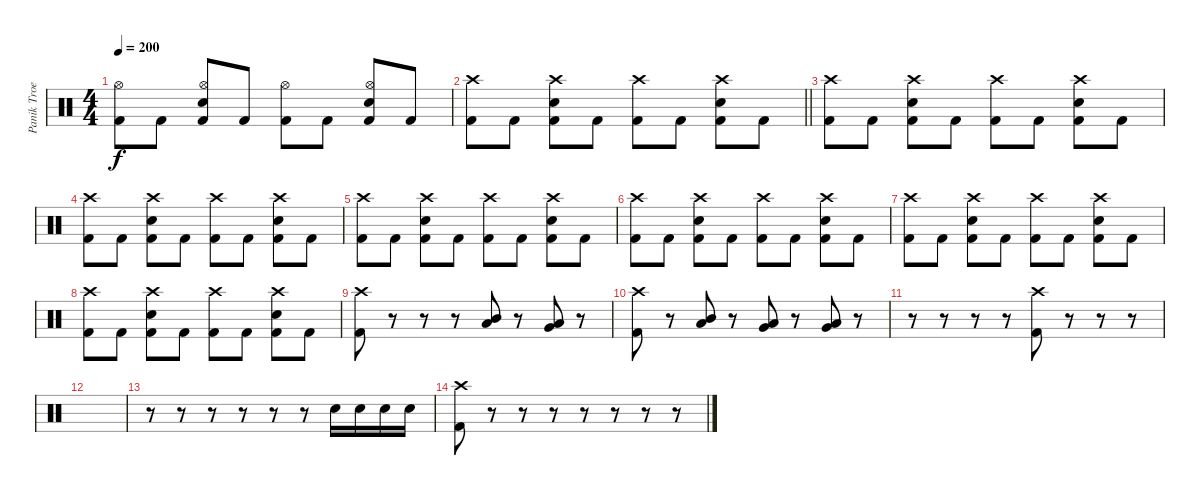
\track ("Panik Troels ( Dengang )" "Panik Troe") {instrument percussion}
\staff {score}
\articulation defaults
\ts (4 4)
\tempo 200
\clef neutral
\ks c
("Kick (hit) 2" "Hi-Hat (open)").8{dy f} "Kick (hit) 2".8 ("Kick (hit) 2" "Hi-Hat (open)" "Snare (hit) 2").8 "Kick (hit) 2".8 ("Kick (hit) 2" "Hi-Hat (open)").8 "Kick (hit) 2".8 ("Kick (hit) 2" "Hi-Hat (open)" "Snare (hit) 2").8 "Kick (hit) 2".8 |
\barLineRight lightlight
("Kick (hit) 2" "Crash high (hit)").8 "Kick (hit) 2".8 ("Kick (hit) 2" "Crash high (hit)" "Snare (hit) 2").8 "Kick (hit) 2".8 ("Kick (hit) 2" "Crash high (hit)").8 "Kick (hit) 2".8 ("Kick (hit) 2" "Crash high (hit)" "Snare (hit) 2").8 "Kick (hit) 2".8 |
("Kick (hit) 2" "Crash high (hit)").8 "Kick (hit) 2".8 ("Kick (hit) 2" "Crash high (hit)" "Snare (hit) 2").8 "Kick (hit) 2".8 ("Kick (hit) 2" "Crash high (hit)").8 "Kick (hit) 2".8 ("Kick (hit) 2" "Crash high (hit)" "Snare (hit) 2").8 "Kick (hit) 2".8 |
("Kick (hit) 2" "Crash high (hit)").8 "Kick (hit) 2".8 ("Kick (hit) 2" "Crash high (hit)" "Snare (hit) 2").8 "Kick (hit) 2".8 ("Kick (hit) 2" "Crash high (hit)").8 "Kick (hit) 2".8 ("Kick (hit) 2" "Crash high (hit)" "Snare (hit) 2").8 "Kick (hit) 2".8 |
("Kick (hit) 2" "Crash high (hit)").8 "Kick (hit) 2".8 ("Kick (hit) 2" "Crash high (hit)" "Snare (hit) 2").8 "Kick (hit) 2".8 ("Kick (hit) 2" "Crash high (hit)").8 "Kick (hit) 2".8 ("Kick (hit) 2" "Crash high (hit)" "Snare (hit) 2").8 "Kick (hit) 2".8 |
("Kick (hit) 2" "Crash high (hit)").8 "Kick (hit) 2".8 ("Kick (hit) 2" "Crash high (hit)" "Snare (hit) 2").8 "Kick (hit) 2".8 ("Kick (hit) 2" "Crash high (hit)").8 "Kick (hit) 2".8 ("Kick (hit) 2" "Crash high (hit)" "Snare (hit) 2").8 "Kick (hit) 2".8 |
("Kick (hit) 2" "Crash high (hit)").8 "Kick (hit) 2".8 ("Kick (hit) 2" "Crash high (hit)" "Snare (hit) 2").8 "Kick (hit) 2".8 ("Kick (hit) 2" "Crash high (hit)").8 "Kick (hit) 2".8 ("Kick (hit) 2" "Crash high (hit)" "Snare (hit) 2").8 "Kick (hit) 2".8 |
("Kick (hit) 2" "Crash high (hit)").8 "Kick (hit) 2".8 ("Kick (hit) 2" "Crash high (hit)" "Snare (hit) 2").8 "Kick (hit) 2".8 ("Kick (hit) 2" "Crash high (hit)").8 "Kick (hit) 2".8 ("Kick (hit) 2" "Crash high (hit)" "Snare (hit) 2").8 "Kick (hit) 2".8 |
("Kick (hit) 2" "Crash high (hit)").8 r.8 r.8 r.8 ("Mid Tom (hit)" "Low Tom (hit)").8 r.8 ("Low Tom (hit)" "Very Low Tom (hit)").8 r.8 |
("Kick (hit) 2" "Crash high (hit)").8 r.8 ("Mid Tom (hit)" "Low Tom (hit)").8 r.8 ("Low Tom (hit)" "Very Low Tom (hit)").8 r.8 ("Very Low Tom (hit)" "Low Floor Tom (hit)").8 r.8 |
r.8 r.8 r.8 r.8 ("Kick (hit) 2" "Crash high (hit)").8 r.8 r.8 r.8 |
|
r.8 r.8 r.8 r.8 r.8 r.8 "Snare (hit) 2".16 "Snare (hit) 2".16 "Snare (hit) 2".16 "Snare (hit) 2".16 |
("Kick (hit) 2" "Crash high (hit)").8 r.8 r.8 r.8 r.8 r.8 r.8 r.8
